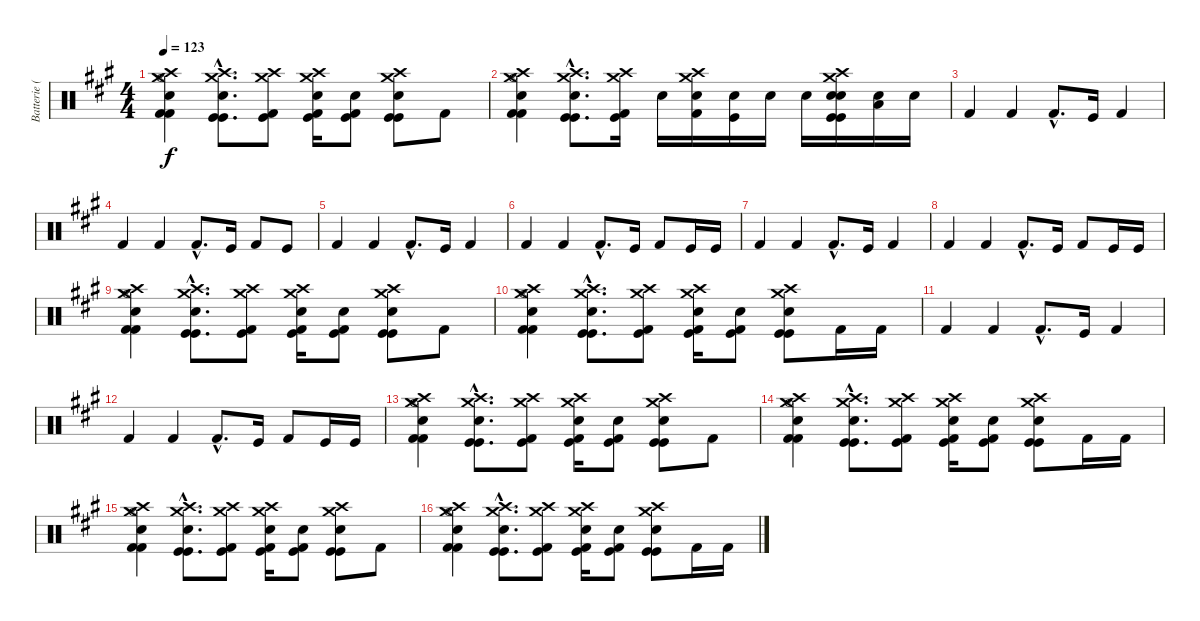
\track ("Batterie (Dominic Howard)" "Batterie (") {instrument percussion}
\staff {score}
\articulation defaults
\ts (4 4)
\tempo 123
\clef neutral
\ks a
("Crash medium (hit)" "Crash high (hit)" "Hi-Hat (open)" "Snare (hit) 2" "Kick (hit) 2" "Kick (hit) 2").4{dy f} ("Crash medium (hit)"{hac} "Crash high (hit)"{hac} "Electric Snare (hit)"{hac} "Kick (hit)"{hac} "Kick (hit)"{hac}).8{d} ("Crash medium (hit)" "Crash high (hit)" "Kick (hit)" "Kick (hit) 2").8 ("Crash medium (hit)" "Crash high (hit)" "Snare (hit) 2" "Kick (hit)" "Kick (hit) 2").16 ("Snare (hit) 2" "Kick (hit) 2" "Kick (hit)").8 ("Crash medium (hit)" "Crash high (hit)" "Electric Snare (hit)" "Kick (hit)" "Kick (hit)").8 "Kick (hit) 2".8 |
("Crash medium (hit)" "Crash high (hit)" "Hi-Hat (open)" "Snare (hit) 2" "Kick (hit) 2" "Kick (hit) 2").4 ("Crash medium (hit)"{hac} "Crash high (hit)"{hac} "Electric Snare (hit)"{hac} "Kick (hit)"{hac} "Kick (hit)"{hac}).8{d} ("Crash medium (hit)" "Crash high (hit)" "Kick (hit)" "Kick (hit) 2").16 "Electric Snare (hit)".16 ("Crash medium (hit)" "Crash high (hit)" "Electric Snare (hit)" "Kick (hit) 2").16 ("Electric Snare (hit)" "Kick (hit)").16 "Electric Snare (hit)".16 "Electric Snare (hit)".16 ("Crash medium (hit)" "Crash high (hit)" "Electric Snare (hit)" "Electric Snare (hit)" "Kick (hit)" "Kick (hit)").16 ("Electric Snare (hit)" "Low Floor Tom (hit)").16 "Electric Snare (hit)".16 |
"Kick (hit) 2".4 "Kick (hit) 2".4 "Kick (hit) 2"{hac}.8{d} "Kick (hit)".16 "Kick (hit) 2".4 |
"Kick (hit) 2".4 "Kick (hit) 2".4 "Kick (hit) 2"{hac}.8{d} "Kick (hit)".16 "Kick (hit) 2".8 "Kick (hit)".8 |
"Kick (hit) 2".4 "Kick (hit) 2".4 "Kick (hit) 2"{hac}.8{d} "Kick (hit)".16 "Kick (hit) 2".4 |
"Kick (hit) 2".4 "Kick (hit) 2".4 "Kick (hit) 2"{hac}.8{d} "Kick (hit)".16 "Kick (hit) 2".8 "Kick (hit)".16 "Kick (hit)".16 |
"Kick (hit) 2".4 "Kick (hit) 2".4 "Kick (hit) 2"{hac}.8{d} "Kick (hit)".16 "Kick (hit) 2".4 |
"Kick (hit) 2".4 "Kick (hit) 2".4 "Kick (hit) 2"{hac}.8{d} "Kick (hit)".16 "Kick (hit) 2".8 "Kick (hit)".16 "Kick (hit)".16 |
("Crash medium (hit)" "Crash high (hit)" "Hi-Hat (open)" "Snare (hit) 2" "Kick (hit) 2" "Kick (hit) 2").4 ("Crash medium (hit)"{hac} "Crash high (hit)"{hac} "Electric Snare (hit)"{hac} "Kick (hit)"{hac} "Kick (hit)"{hac}).8{d} ("Crash medium (hit)" "Crash high (hit)" "Kick (hit)" "Kick (hit) 2").8 ("Crash medium (hit)" "Crash high (hit)" "Snare (hit) 2" "Kick (hit)" "Kick (hit) 2").16 ("Snare (hit) 2" "Kick (hit) 2" "Kick (hit)").8 ("Crash medium (hit)" "Crash high (hit)" "Electric Snare (hit)" "Kick (hit)" "Kick (hit)").8 "Kick (hit) 2".8 |
("Crash medium (hit)" "Crash high (hit)" "Hi-Hat (open)" "Snare (hit) 2" "Kick (hit) 2" "Kick (hit) 2").4 ("Crash medium (hit)"{hac} "Crash high (hit)"{hac} "Electric Snare (hit)"{hac} "Kick (hit)"{hac} "Kick (hit)"{hac}).8{d} ("Crash medium (hit)" "Crash high (hit)" "Kick (hit)" "Kick (hit) 2").8 ("Crash medium (hit)" "Crash high (hit)" "Snare (hit) 2" "Kick (hit)" "Kick (hit) 2").16 ("Snare (hit) 2" "Kick (hit) 2" "Kick (hit)").8 ("Crash medium (hit)" "Crash high (hit)" "Electric Snare (hit)" "Kick (hit)" "Kick (hit)").8 "Kick (hit) 2".16 "Kick (hit) 2".16 |
"Kick (hit) 2".4 "Kick (hit) 2".4 "Kick (hit) 2"{hac}.8{d} "Kick (hit)".16 "Kick (hit) 2".4 |
"Kick (hit) 2".4 "Kick (hit) 2".4 "Kick (hit) 2"{hac}.8{d} "Kick (hit)".16 "Kick (hit) 2".8 "Kick (hit)".16 "Kick (hit)".16 |
("Crash medium (hit)" "Crash high (hit)" "Hi-Hat (open)" "Snare (hit) 2" "Kick (hit) 2" "Kick (hit) 2").4 ("Crash medium (hit)"{hac} "Crash high (hit)"{hac} "Electric Snare (hit)"{hac} "Kick (hit)"{hac} "Kick (hit)"{hac}).8{d} ("Crash medium (hit)" "Crash high (hit)" "Kick (hit)" "Kick (hit) 2").8 ("Crash medium (hit)" "Crash high (hit)" "Snare (hit) 2" "Kick (hit)" "Kick (hit) 2").16 ("Snare (hit) 2" "Kick (hit) 2" "Kick (hit)").8 ("Crash medium (hit)" "Crash high (hit)" "Electric Snare (hit)" "Kick (hit)" "Kick (hit)").8 "Kick (hit) 2".8 |
("Crash medium (hit)" "Crash high (hit)" "Hi-Hat (open)" "Snare (hit) 2" "Kick (hit) 2" "Kick (hit) 2").4 ("Crash medium (hit)"{hac} "Crash high (hit)"{hac} "Electric Snare (hit)"{hac} "Kick (hit)"{hac} "Kick (hit)"{hac}).8{d} ("Crash medium (hit)" "Crash high (hit)" "Kick (hit)" "Kick (hit) 2").8 ("Crash medium (hit)" "Crash high (hit)" "Snare (hit) 2" "Kick (hit)" "Kick (hit) 2").16 ("Snare (hit) 2" "Kick (hit) 2" "Kick (hit)").8 ("Crash medium (hit)" "Crash high (hit)" "Electric Snare (hit)" "Kick (hit)" "Kick (hit)").8 "Kick (hit) 2".16 "Kick (hit) 2".16 |
("Crash medium (hit)" "Crash high (hit)" "Hi-Hat (open)" "Snare (hit) 2" "Kick (hit) 2" "Kick (hit) 2").4 ("Crash medium (hit)"{hac} "Crash high (hit)"{hac} "Electric Snare (hit)"{hac} "Kick (hit)"{hac} "Kick (hit)"{hac}).8{d} ("Crash medium (hit)" "Crash high (hit)" "Kick (hit)" "Kick (hit) 2").8 ("Crash medium (hit)" "Crash high (hit)" "Snare (hit) 2" "Kick (hit)" "Kick (hit) 2").16 ("Snare (hit) 2" "Kick (hit) 2" "Kick (hit)").8 ("Crash medium (hit)" "Crash high (hit)" "Electric Snare (hit)" "Kick (hit)" "Kick (hit)").8 "Kick (hit) 2".8 |
("Crash medium (hit)" "Crash high (hit)" "Hi-Hat (open)" "Snare (hit) 2" "Kick (hit) 2" "Kick (hit) 2").4 ("Crash medium (hit)"{hac} "Crash high (hit)"{hac} "Electric Snare (hit)"{hac} "Kick (hit)"{hac} "Kick (hit)"{hac}).8{d} ("Crash medium (hit)" "Crash high (hit)" "Kick (hit)" "Kick (hit) 2").8 ("Crash medium (hit)" "Crash high (hit)" "Snare (hit) 2" "Kick (hit)" "Kick (hit) 2").16 ("Snare (hit) 2" "Kick (hit) 2" "Kick (hit)").8 ("Crash medium (hit)" "Crash high (hit)" "Electric Snare (hit)" "Kick (hit)" "Kick (hit)").8 "Kick (hit) 2".16 "Kick (hit) 2".16
